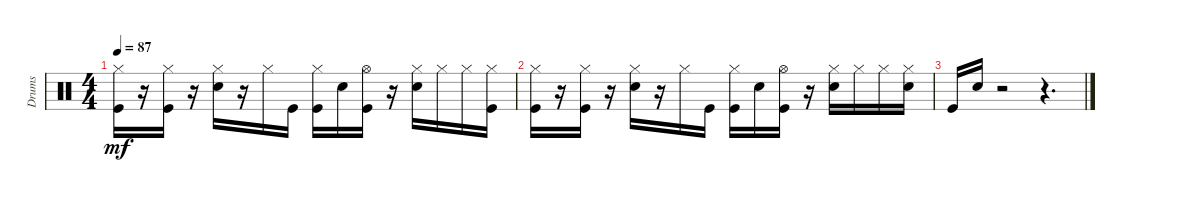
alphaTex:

\track ("Drums" "Drums") {instrument percussion}
\staff {score}
\articulation defaults
\ts (4 4)
\tempo 87
\clef neutral
\ks aminor
("Kick (hit)" "Hi-Hat (closed)").16{dy mf} r.16 ("Kick (hit)" "Hi-Hat (closed)").16 r.16 ("Electric Snare (hit)" "Hi-Hat (closed)").16 r.16 "Hi-Hat (closed)".16 "Kick (hit)".16 ("Kick (hit)" "Hi-Hat (closed)").16 "Electric Snare (hit)".16 ("Kick (hit)" "Hi-Hat (open)").16 r.16 ("Electric Snare (hit)" "Hi-Hat (closed)").16 "Hi-Hat (closed)".16 "Hi-Hat (closed)".16 ("Kick (hit)" "Hi-Hat (closed)").16 |
("Kick (hit)" "Hi-Hat (closed)").16 r.16 ("Kick (hit)" "Hi-Hat (closed)").16 r.16 ("Electric Snare (hit)" "Hi-Hat (closed)").16 r.16 "Hi-Hat (closed)".16 "Kick (hit)".16 ("Kick (hit)" "Hi-Hat (closed)").16 "Electric Snare (hit)".16 ("Kick (hit)" "Hi-Hat (open)").16 r.16 ("Electric Snare (hit)" "Hi-Hat (closed)").16 "Hi-Hat (closed)".16 "Hi-Hat (closed)".16 ("Electric Snare (hit)" "Hi-Hat (closed)").16 |
"Kick (hit)".16 "Electric Snare (hit)".16 r.2 r.4{d}
